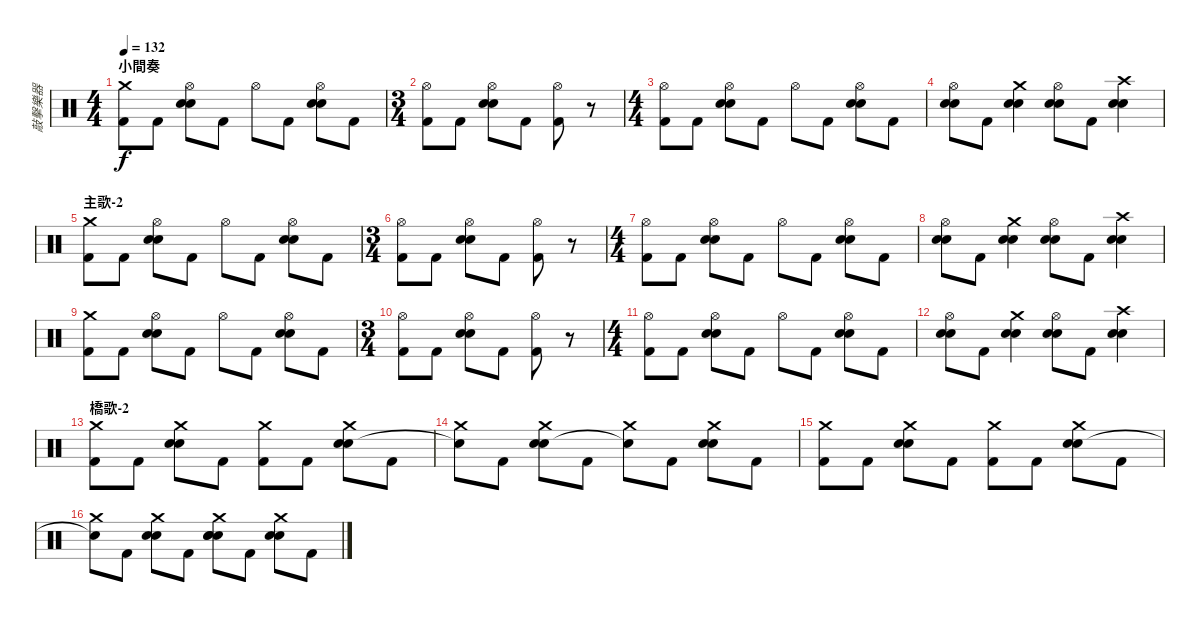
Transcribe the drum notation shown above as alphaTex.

\track ("敲擊樂器" "敲擊樂器") {instrument percussion}
\staff {score}
\articulation defaults
\ts (4 4)
\section ("" "小間奏")
\tempo 132
\clef neutral
\ks c
("Crash medium (hit)" "Kick (hit) 2").8{dy f} "Kick (hit) 2".8 ("Hi-Hat (open)" "Electric Snare (hit)" "Snare (hit) 2").8 "Kick (hit) 2".8 "Hi-Hat (open)".8 "Kick (hit) 2".8 ("Hi-Hat (open)" "Electric Snare (hit)" "Snare (hit) 2").8 "Kick (hit) 2".8 |
\ts (3 4)
("Hi-Hat (open)" "Kick (hit) 2").8 "Kick (hit) 2".8 ("Hi-Hat (open)" "Electric Snare (hit)" "Snare (hit) 2").8 "Kick (hit) 2".8 ("Hi-Hat (open)" "Kick (hit) 2").8 r.8 |
\ts (4 4)
("Hi-Hat (open)" "Kick (hit) 2").8 "Kick (hit) 2".8 ("Hi-Hat (open)" "Electric Snare (hit)" "Snare (hit) 2").8 "Kick (hit) 2".8 "Hi-Hat (open)".8 "Kick (hit) 2".8 ("Hi-Hat (open)" "Electric Snare (hit)" "Snare (hit) 2").8 "Kick (hit) 2".8 |
("Hi-Hat (open)" "Electric Snare (hit)" "Snare (hit) 2").8 "Kick (hit) 2".8 ("Crash medium (hit)" "Electric Snare (hit)" "Snare (hit) 2").4 ("Hi-Hat (open)" "Electric Snare (hit)" "Snare (hit) 2").8 "Kick (hit) 2".8 ("Crash high (hit)" "Electric Snare (hit)" "Snare (hit) 2").4 |
\section ("" "主歌-2")
("Crash medium (hit)" "Kick (hit) 2").8 "Kick (hit) 2".8 ("Hi-Hat (open)" "Electric Snare (hit)" "Snare (hit) 2").8 "Kick (hit) 2".8 "Hi-Hat (open)".8 "Kick (hit) 2".8 ("Hi-Hat (open)" "Electric Snare (hit)" "Snare (hit) 2").8 "Kick (hit) 2".8 |
\ts (3 4)
("Hi-Hat (open)" "Kick (hit) 2").8 "Kick (hit) 2".8 ("Hi-Hat (open)" "Electric Snare (hit)" "Snare (hit) 2").8 "Kick (hit) 2".8 ("Hi-Hat (open)" "Kick (hit) 2").8 r.8 |
\ts (4 4)
("Hi-Hat (open)" "Kick (hit) 2").8 "Kick (hit) 2".8 ("Hi-Hat (open)" "Electric Snare (hit)" "Snare (hit) 2").8 "Kick (hit) 2".8 "Hi-Hat (open)".8 "Kick (hit) 2".8 ("Hi-Hat (open)" "Electric Snare (hit)" "Snare (hit) 2").8 "Kick (hit) 2".8 |
("Hi-Hat (open)" "Electric Snare (hit)" "Snare (hit) 2").8 "Kick (hit) 2".8 ("Crash medium (hit)" "Electric Snare (hit)" "Snare (hit) 2").4 ("Hi-Hat (open)" "Electric Snare (hit)" "Snare (hit) 2").8 "Kick (hit) 2".8 ("Crash high (hit)" "Electric Snare (hit)" "Snare (hit) 2").4 |
("Crash medium (hit)" "Kick (hit) 2").8 "Kick (hit) 2".8 ("Hi-Hat (open)" "Electric Snare (hit)" "Snare (hit) 2").8 "Kick (hit) 2".8 "Hi-Hat (open)".8 "Kick (hit) 2".8 ("Hi-Hat (open)" "Electric Snare (hit)" "Snare (hit) 2").8 "Kick (hit) 2".8 |
\ts (3 4)
("Hi-Hat (open)" "Kick (hit) 2").8 "Kick (hit) 2".8 ("Hi-Hat (open)" "Electric Snare (hit)" "Snare (hit) 2").8 "Kick (hit) 2".8 ("Hi-Hat (open)" "Kick (hit) 2").8 r.8 |
\ts (4 4)
("Hi-Hat (open)" "Kick (hit) 2").8 "Kick (hit) 2".8 ("Hi-Hat (open)" "Electric Snare (hit)" "Snare (hit) 2").8 "Kick (hit) 2".8 "Hi-Hat (open)".8 "Kick (hit) 2".8 ("Hi-Hat (open)" "Electric Snare (hit)" "Snare (hit) 2").8 "Kick (hit) 2".8 |
("Hi-Hat (open)" "Electric Snare (hit)" "Snare (hit) 2").8 "Kick (hit) 2".8 ("Crash medium (hit)" "Electric Snare (hit)" "Snare (hit) 2").4 ("Hi-Hat (open)" "Electric Snare (hit)" "Snare (hit) 2").8 "Kick (hit) 2".8 ("Crash high (hit)" "Electric Snare (hit)" "Snare (hit) 2").4 |
\section ("" "橋歌-2")
("Crash medium (hit)" "Kick (hit) 2").8 "Kick (hit) 2".8 ("Crash medium (hit)" "Electric Snare (hit)" "Snare (hit) 2").8 "Kick (hit) 2".8 ("Crash medium (hit)" "Kick (hit) 2").8 "Kick (hit) 2".8 ("Crash medium (hit)" "Electric Snare (hit)" "Snare (hit) 2").8 "Kick (hit) 2".8 |
("Crash medium (hit)" "Snare (hit)"{t}).8 "Kick (hit) 2".8 ("Crash medium (hit)" "Electric Snare (hit)" "Snare (hit) 2").8 "Kick (hit) 2".8 ("Crash medium (hit)" "Snare (hit)"{t}).8 "Kick (hit) 2".8 ("Crash medium (hit)" "Electric Snare (hit)" "Snare (hit) 2").8 "Kick (hit) 2".8 |
("Crash medium (hit)" "Kick (hit) 2").8 "Kick (hit) 2".8 ("Crash medium (hit)" "Electric Snare (hit)" "Snare (hit) 2").8 "Kick (hit) 2".8 ("Crash medium (hit)" "Kick (hit) 2").8 "Kick (hit) 2".8 ("Crash medium (hit)" "Electric Snare (hit)" "Snare (hit) 2").8 "Kick (hit) 2".8 |
("Crash medium (hit)" "Snare (hit)"{t}).8 "Kick (hit) 2".8 ("Crash medium (hit)" "Electric Snare (hit)" "Snare (hit) 2").8 "Kick (hit) 2".8 ("Crash medium (hit)" "Electric Snare (hit)" "Snare (hit) 2" "Snare (hit)").8 "Kick (hit) 2".8 ("Crash medium (hit)" "Electric Snare (hit)" "Snare (hit) 2").8 "Kick (hit) 2".8
